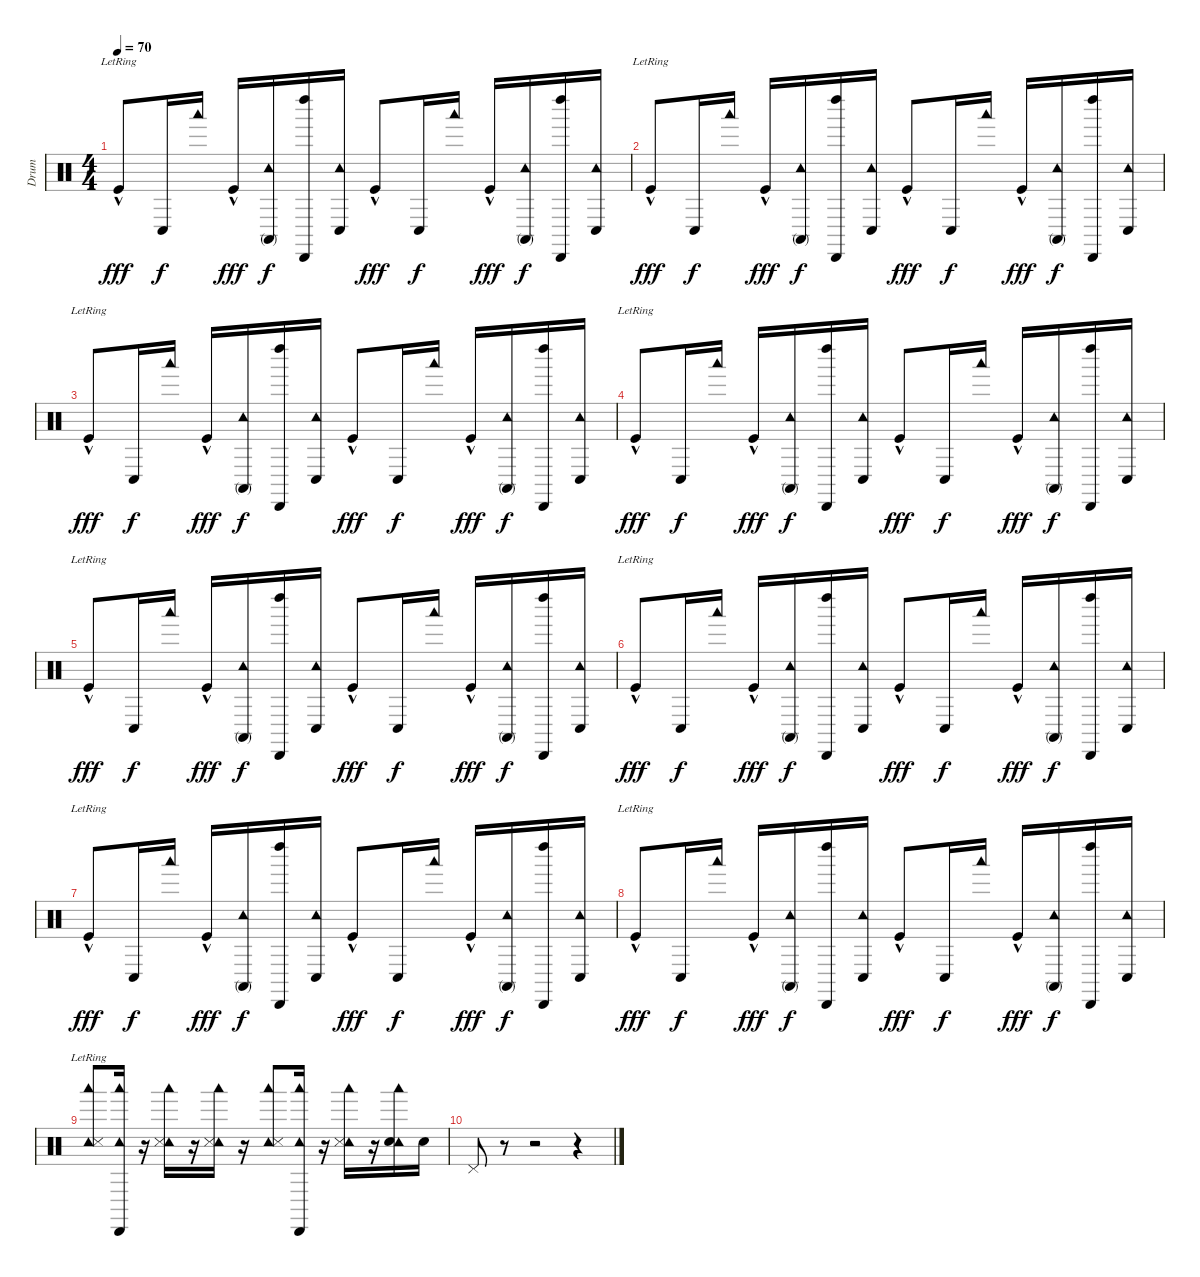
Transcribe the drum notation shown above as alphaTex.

\track ("Drum" "Drum") {instrument percussion}
\staff {score}
\articulation defaults
\ts (4 4)
\tempo 70
\clef neutral
\ks c "Kick (hit)"{hac lr}.8{dy fff} "Conga low (hit)".16{dy f} "Woodblock low (hit)".16 "Kick (hit)"{hac}.16{dy fff}
("Tambourine (hit)" "Conga high (mute)").16{dy f} ("Left Maraca (hit)" "Cabasa (hit)").16 ("Tambourine (hit)" "Conga low (hit)").16 "Kick (hit)"{hac}.8{dy fff} "Conga low (hit)".16{dy f} "Woodblock low (hit)".16 "Kick (hit)"{hac}.16{dy fff} ("Tambourine (hit)" "Conga high (mute)").16{dy f} ("Cabasa (hit)" "Left Maraca (hit)").16 ("Tambourine (hit)" "Conga low (hit)").16 |
"Kick (hit)"{hac lr}.8{dy fff} "Conga low (hit)".16{dy f} "Woodblock low (hit)".16 "Kick (hit)"{hac}.16{dy fff} ("Tambourine (hit)" "Conga high (mute)").16{dy f} ("Left Maraca (hit)" "Cabasa (hit)").16 ("Tambourine (hit)" "Conga low (hit)").16 "Kick (hit)"{hac}.8{dy fff} "Conga low (hit)".16{dy f} "Woodblock low (hit)".16 "Kick (hit)"{hac}.16{dy fff} ("Tambourine (hit)" "Conga high (mute)").16{dy f} ("Cabasa (hit)" "Left Maraca (hit)").16 ("Tambourine (hit)" "Conga low (hit)").16 |
"Kick (hit)"{hac lr}.8{dy fff} "Conga low (hit)".16{dy f} "Woodblock low (hit)".16 "Kick (hit)"{hac}.16{dy fff} ("Tambourine (hit)" "Conga high (mute)").16{dy f} ("Left Maraca (hit)" "Cabasa (hit)").16 ("Tambourine (hit)" "Conga low (hit)").16 "Kick (hit)"{hac}.8{dy fff} "Conga low (hit)".16{dy f} "Woodblock low (hit)".16 "Kick (hit)"{hac}.16{dy fff} ("Tambourine (hit)" "Conga high (mute)").16{dy f} ("Cabasa (hit)" "Left Maraca (hit)").16 ("Tambourine (hit)" "Conga low (hit)").16 |
"Kick (hit)"{hac lr}.8{dy fff} "Conga low (hit)".16{dy f} "Woodblock low (hit)".16 "Kick (hit)"{hac}.16{dy fff} ("Tambourine (hit)" "Conga high (mute)").16{dy f} ("Left Maraca (hit)" "Cabasa (hit)").16 ("Tambourine (hit)" "Conga low (hit)").16 "Kick (hit)"{hac}.8{dy fff} "Conga low (hit)".16{dy f} "Woodblock low (hit)".16 "Kick (hit)"{hac}.16{dy fff} ("Tambourine (hit)" "Conga high (mute)").16{dy f} ("Cabasa (hit)" "Left Maraca (hit)").16 ("Tambourine (hit)" "Conga low (hit)").16 |
"Kick (hit)"{hac lr}.8{dy fff} "Conga low (hit)".16{dy f} "Woodblock low (hit)".16 "Kick (hit)"{hac}.16{dy fff} ("Tambourine (hit)" "Conga high (mute)").16{dy f} ("Left Maraca (hit)" "Cabasa (hit)").16 ("Tambourine (hit)" "Conga low (hit)").16 "Kick (hit)"{hac}.8{dy fff} "Conga low (hit)".16{dy f} "Woodblock low (hit)".16 "Kick (hit)"{hac}.16{dy fff} ("Tambourine (hit)" "Conga high (mute)").16{dy f} ("Cabasa (hit)" "Left Maraca (hit)").16 ("Tambourine (hit)" "Conga low (hit)").16 |
"Kick (hit)"{hac lr}.8{dy fff} "Conga low (hit)".16{dy f} "Woodblock low (hit)".16 "Kick (hit)"{hac}.16{dy fff} ("Tambourine (hit)" "Conga high (mute)").16{dy f} ("Left Maraca (hit)" "Cabasa (hit)").16 ("Tambourine (hit)" "Conga low (hit)").16 "Kick (hit)"{hac}.8{dy fff} "Conga low (hit)".16{dy f} "Woodblock low (hit)".16 "Kick (hit)"{hac}.16{dy fff} ("Tambourine (hit)" "Conga high (mute)").16{dy f} ("Cabasa (hit)" "Left Maraca (hit)").16 ("Tambourine (hit)" "Conga low (hit)").16 |
"Kick (hit)"{hac lr}.8{dy fff} "Conga low (hit)".16{dy f} "Woodblock low (hit)".16 "Kick (hit)"{hac}.16{dy fff} ("Tambourine (hit)" "Conga high (mute)").16{dy f} ("Left Maraca (hit)" "Cabasa (hit)").16 ("Tambourine (hit)" "Conga low (hit)").16 "Kick (hit)"{hac}.8{dy fff} "Conga low (hit)".16{dy f} "Woodblock low (hit)".16 "Kick (hit)"{hac}.16{dy fff} ("Tambourine (hit)" "Conga high (mute)").16{dy f} ("Cabasa (hit)" "Left Maraca (hit)").16 ("Tambourine (hit)" "Conga low (hit)").16 |
"Kick (hit)"{hac lr}.8{dy fff} "Conga low (hit)".16{dy f} "Woodblock low (hit)".16 "Kick (hit)"{hac}.16{dy fff} ("Tambourine (hit)" "Conga high (mute)").16{dy f} ("Left Maraca (hit)" "Cabasa (hit)").16 ("Tambourine (hit)" "Conga low (hit)").16 "Kick (hit)"{hac}.8{dy fff} "Conga low (hit)".16{dy f} "Woodblock low (hit)".16 "Kick (hit)"{hac}.16{dy fff} ("Tambourine (hit)" "Conga high (mute)").16{dy f} ("Cabasa (hit)" "Left Maraca (hit)").16 ("Tambourine (hit)" "Conga low (hit)").16 |
("Tambourine (hit)"{lr} "Woodblock low (hit)" "Snare (side stick) 3").8 ("Tambourine (hit)" "Woodblock low (hit)" "Cabasa (hit)").16 r.16 ("Tambourine (hit)" "Woodblock low (hit)" "Snare (side stick) 3").16 r.16 ("Tambourine (hit)" "Woodblock low (hit)" "Snare (side stick) 3").16 r.16 ("Tambourine (hit)" "Woodblock low (hit)" "Snare (side stick) 3").8 ("Tambourine (hit)" "Woodblock low (hit)" "Cabasa (hit)").16 r.16 ("Tambourine (hit)" "Woodblock low (hit)" "Snare (side stick) 3").16 r.16 ("Tambourine (hit)" "Woodblock low (hit)" "Hand Clap (hit)").16 "Hand Clap (hit)".16 |
"Pedal Hi-Hat (hit)".8 r.8 r.2 r.4
